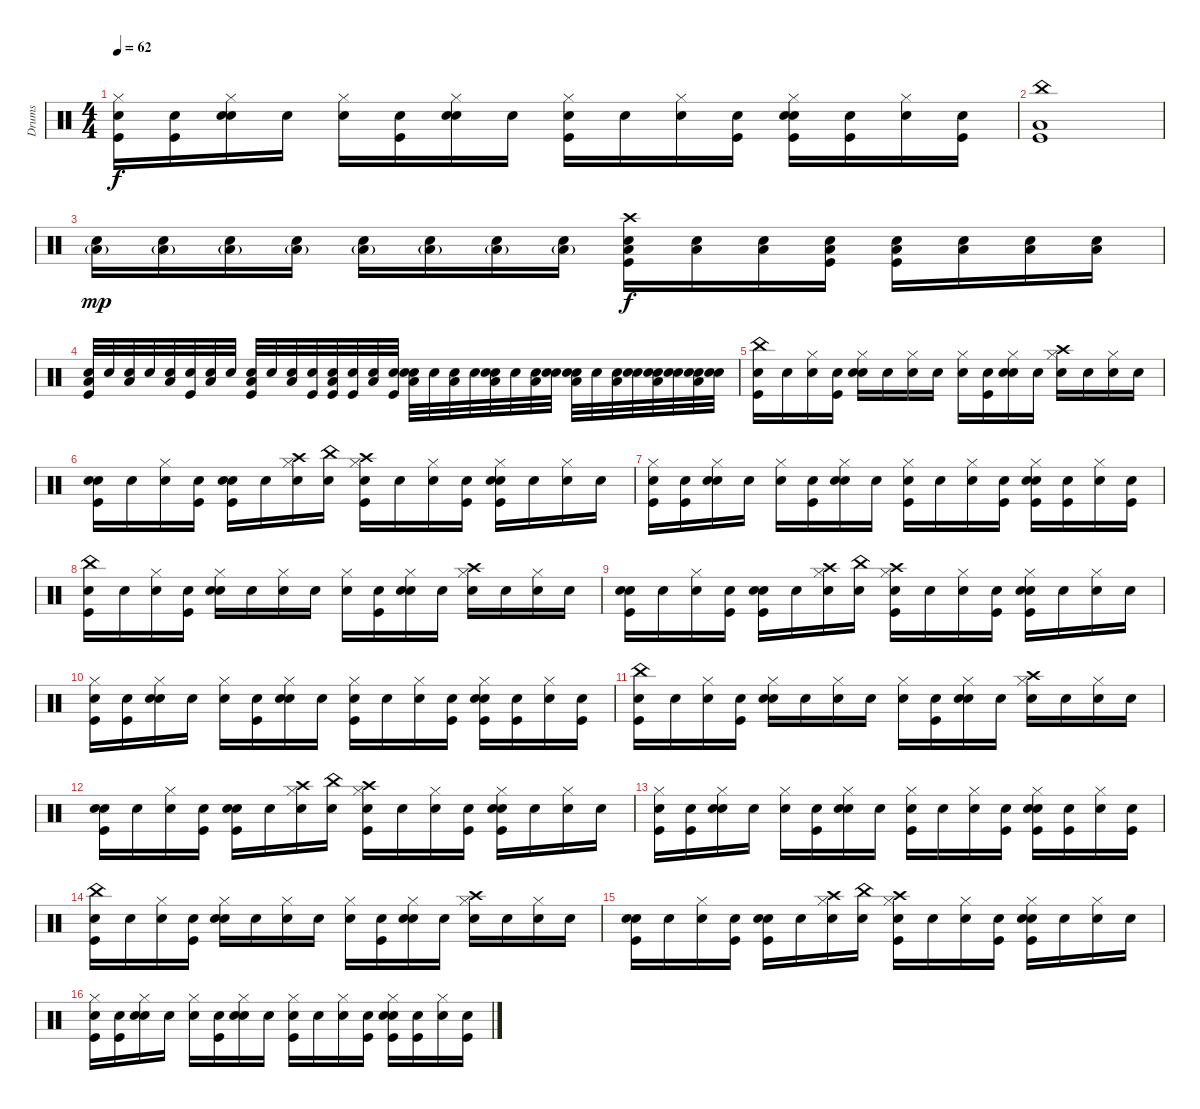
\track ("Drums" "Drums") {instrument percussion}
\staff {score}
\articulation defaults
\ts (4 4)
\tempo 62
\clef neutral
\ks c
("Snare (hit)" "Kick (hit)" "Hi-Hat (closed)").16{dy f} ("Snare (hit)" "Kick (hit)").16 ("Snare (hit)" "Snare (hit) 2" "Hi-Hat (closed)").16 "Snare (hit)".16 ("Snare (hit)" "Hi-Hat (closed)").16 ("Snare (hit)" "Kick (hit)").16 ("Snare (hit)" "Snare (hit) 2" "Hi-Hat (closed)").16 "Snare (hit)".16 ("Snare (hit)" "Kick (hit)" "Hi-Hat (closed)").16 "Snare (hit)".16 ("Snare (hit)" "Hi-Hat (closed)").16 ("Snare (hit)" "Kick (hit)").16 ("Snare (hit)" "Snare (hit) 2" "Kick (hit)" "Hi-Hat (closed)").16 ("Snare (hit)" "Kick (hit)").16 ("Snare (hit)" "Hi-Hat (closed)").16 ("Snare (hit)" "Kick (hit)").16 |
("China (hit)" "Kick (hit)" "Low Floor Tom (hit)").1 |
("Snare (hit)" "Low Floor Tom (hit)"{g}).16{dy mp} ("Snare (hit)" "Low Floor Tom (hit)"{g}).16 ("Snare (hit)" "Low Floor Tom (hit)"{g}).16 ("Snare (hit)" "Low Floor Tom (hit)"{g}).16 ("Snare (hit)" "Low Floor Tom (hit)"{g}).16 ("Snare (hit)" "Low Floor Tom (hit)"{g}).16 ("Snare (hit)" "Low Floor Tom (hit)"{g}).16 ("Snare (hit)" "Low Floor Tom (hit)"{g}).16 ("Snare (hit)" "Crash high (hit)" "Kick (hit)" "Low Floor Tom (hit)").16{dy f} ("Snare (hit)" "Low Floor Tom (hit)").16 ("Snare (hit)" "Low Floor Tom (hit)").16 ("Snare (hit)" "Kick (hit)" "Low Floor Tom (hit)").16 ("Snare (hit)" "Kick (hit)" "Low Floor Tom (hit)").16 ("Snare (hit)" "Low Floor Tom (hit)").16 ("Snare (hit)" "Low Floor Tom (hit)").16 ("Snare (hit)" "Low Floor Tom (hit)").16 |
("Snare (hit)" "Kick (hit)" "Low Floor Tom (hit)").32 "Snare (hit)".32 ("Snare (hit)" "Low Floor Tom (hit)").32 "Snare (hit)".32 ("Snare (hit)" "Low Floor Tom (hit)").32 ("Snare (hit)" "Kick (hit)").32 ("Snare (hit)" "Low Floor Tom (hit)").32 "Snare (hit)".32 ("Snare (hit)" "Kick (hit)" "Low Floor Tom (hit)").32 "Snare (hit)".32 ("Snare (hit)" "Low Floor Tom (hit)").32 ("Snare (hit)" "Kick (hit)").32 ("Snare (hit)" "Kick (hit)" "Low Floor Tom (hit)").32 ("Snare (hit)" "Kick (hit)").32 ("Snare (hit)" "Low Floor Tom (hit)").32 ("Snare (hit)" "Kick (hit)").32 ("Snare (hit)" "Snare (hit) 2" "Low Floor Tom (hit)").32 "Snare (hit)".32 ("Snare (hit)" "Low Floor Tom (hit)").32 "Snare (hit)".32 ("Snare (hit)" "Snare (hit) 2" "Low Floor Tom (hit)").32 "Snare (hit)".32 ("Snare (hit)" "Low Floor Tom (hit)").32 ("Snare (hit)" "Snare (hit) 2").32 ("Snare (hit)" "Snare (hit) 2" "Low Floor Tom (hit)").32 "Snare (hit)".32 ("Snare (hit)" "Low Floor Tom (hit)").32 ("Snare (hit)" "Snare (hit) 2").32 ("Snare (hit)" "Snare (hit) 2" "Low Floor Tom (hit)").32 ("Snare (hit)" "Snare (hit) 2").32 ("Snare (hit)" "Snare (hit) 2" "Low Floor Tom (hit)").32 ("Snare (hit)" "Snare (hit) 2").32 |
("Snare (hit)" "China (hit)" "Kick (hit)").16 "Snare (hit)".16 ("Snare (hit)" "Hi-Hat (closed)").16 ("Snare (hit)" "Kick (hit)").16 ("Snare (hit)" "Snare (hit) 2" "Hi-Hat (closed)").16 "Snare (hit)".16 ("Snare (hit)" "Hi-Hat (closed)").16 "Snare (hit)".16 ("Snare (hit)" "Hi-Hat (closed)").16 ("Snare (hit)" "Kick (hit)").16 ("Snare (hit)" "Snare (hit) 2" "Hi-Hat (closed)").16 "Snare (hit)".16 ("Snare (hit)" "Crash high (hit)" "Hi-Hat (closed)").16 "Snare (hit)".16 ("Snare (hit)" "Hi-Hat (closed)").16 "Snare (hit)".16 |
("Snare (hit)" "Snare (hit) 2" "Kick (hit)").16 "Snare (hit)".16 ("Snare (hit)" "Hi-Hat (closed)").16 ("Snare (hit)" "Kick (hit)").16 ("Snare (hit)" "Snare (hit) 2" "Kick (hit)").16 "Snare (hit)".16 ("Snare (hit)" "Crash high (hit)" "Hi-Hat (closed)").16 ("Snare (hit)" "China (hit)").16 ("Snare (hit)" "Crash high (hit)" "Kick (hit)" "Hi-Hat (closed)").16 "Snare (hit)".16 ("Snare (hit)" "Hi-Hat (closed)").16 ("Snare (hit)" "Kick (hit)").16 ("Snare (hit)" "Snare (hit) 2" "Kick (hit)" "Hi-Hat (closed)").16 "Snare (hit)".16 ("Snare (hit)" "Hi-Hat (closed)").16 "Snare (hit)".16 |
("Snare (hit)" "Kick (hit)" "Hi-Hat (closed)").16 ("Snare (hit)" "Kick (hit)").16 ("Snare (hit)" "Snare (hit) 2" "Hi-Hat (closed)").16 "Snare (hit)".16 ("Snare (hit)" "Hi-Hat (closed)").16 ("Snare (hit)" "Kick (hit)").16 ("Snare (hit)" "Snare (hit) 2" "Hi-Hat (closed)").16 "Snare (hit)".16 ("Snare (hit)" "Kick (hit)" "Hi-Hat (closed)").16 "Snare (hit)".16 ("Snare (hit)" "Hi-Hat (closed)").16 ("Snare (hit)" "Kick (hit)").16 ("Snare (hit)" "Snare (hit) 2" "Kick (hit)" "Hi-Hat (closed)").16 ("Snare (hit)" "Kick (hit)").16 ("Snare (hit)" "Hi-Hat (closed)").16 ("Snare (hit)" "Kick (hit)").16 |
("Snare (hit)" "China (hit)" "Kick (hit)").16 "Snare (hit)".16 ("Snare (hit)" "Hi-Hat (closed)").16 ("Snare (hit)" "Kick (hit)").16 ("Snare (hit)" "Snare (hit) 2" "Hi-Hat (closed)").16 "Snare (hit)".16 ("Snare (hit)" "Hi-Hat (closed)").16 "Snare (hit)".16 ("Snare (hit)" "Hi-Hat (closed)").16 ("Snare (hit)" "Kick (hit)").16 ("Snare (hit)" "Snare (hit) 2" "Hi-Hat (closed)").16 "Snare (hit)".16 ("Snare (hit)" "Crash high (hit)" "Hi-Hat (closed)").16 "Snare (hit)".16 ("Snare (hit)" "Hi-Hat (closed)").16 "Snare (hit)".16 |
("Snare (hit)" "Snare (hit) 2" "Kick (hit)").16 "Snare (hit)".16 ("Snare (hit)" "Hi-Hat (closed)").16 ("Snare (hit)" "Kick (hit)").16 ("Snare (hit)" "Snare (hit) 2" "Kick (hit)").16 "Snare (hit)".16 ("Snare (hit)" "Crash high (hit)" "Hi-Hat (closed)").16 ("Snare (hit)" "China (hit)").16 ("Snare (hit)" "Crash high (hit)" "Kick (hit)" "Hi-Hat (closed)").16 "Snare (hit)".16 ("Snare (hit)" "Hi-Hat (closed)").16 ("Snare (hit)" "Kick (hit)").16 ("Snare (hit)" "Snare (hit) 2" "Kick (hit)" "Hi-Hat (closed)").16 "Snare (hit)".16 ("Snare (hit)" "Hi-Hat (closed)").16 "Snare (hit)".16 |
("Snare (hit)" "Kick (hit)" "Hi-Hat (closed)").16 ("Snare (hit)" "Kick (hit)").16 ("Snare (hit)" "Snare (hit) 2" "Hi-Hat (closed)").16 "Snare (hit)".16 ("Snare (hit)" "Hi-Hat (closed)").16 ("Snare (hit)" "Kick (hit)").16 ("Snare (hit)" "Snare (hit) 2" "Hi-Hat (closed)").16 "Snare (hit)".16 ("Snare (hit)" "Kick (hit)" "Hi-Hat (closed)").16 "Snare (hit)".16 ("Snare (hit)" "Hi-Hat (closed)").16 ("Snare (hit)" "Kick (hit)").16 ("Snare (hit)" "Snare (hit) 2" "Kick (hit)" "Hi-Hat (closed)").16 ("Snare (hit)" "Kick (hit)").16 ("Snare (hit)" "Hi-Hat (closed)").16 ("Snare (hit)" "Kick (hit)").16 |
("Snare (hit)" "China (hit)" "Kick (hit)").16 "Snare (hit)".16 ("Snare (hit)" "Hi-Hat (closed)").16 ("Snare (hit)" "Kick (hit)").16 ("Snare (hit)" "Snare (hit) 2" "Hi-Hat (closed)").16 "Snare (hit)".16 ("Snare (hit)" "Hi-Hat (closed)").16 "Snare (hit)".16 ("Snare (hit)" "Hi-Hat (closed)").16 ("Snare (hit)" "Kick (hit)").16 ("Snare (hit)" "Snare (hit) 2" "Hi-Hat (closed)").16 "Snare (hit)".16 ("Snare (hit)" "Crash high (hit)" "Hi-Hat (closed)").16 "Snare (hit)".16 ("Snare (hit)" "Hi-Hat (closed)").16 "Snare (hit)".16 |
("Snare (hit)" "Snare (hit) 2" "Kick (hit)").16 "Snare (hit)".16 ("Snare (hit)" "Hi-Hat (closed)").16 ("Snare (hit)" "Kick (hit)").16 ("Snare (hit)" "Snare (hit) 2" "Kick (hit)").16 "Snare (hit)".16 ("Snare (hit)" "Crash high (hit)" "Hi-Hat (closed)").16 ("Snare (hit)" "China (hit)").16 ("Snare (hit)" "Crash high (hit)" "Kick (hit)" "Hi-Hat (closed)").16 "Snare (hit)".16 ("Snare (hit)" "Hi-Hat (closed)").16 ("Snare (hit)" "Kick (hit)").16 ("Snare (hit)" "Snare (hit) 2" "Kick (hit)" "Hi-Hat (closed)").16 "Snare (hit)".16 ("Snare (hit)" "Hi-Hat (closed)").16 "Snare (hit)".16 |
("Snare (hit)" "Kick (hit)" "Hi-Hat (closed)").16 ("Snare (hit)" "Kick (hit)").16 ("Snare (hit)" "Snare (hit) 2" "Hi-Hat (closed)").16 "Snare (hit)".16 ("Snare (hit)" "Hi-Hat (closed)").16 ("Snare (hit)" "Kick (hit)").16 ("Snare (hit)" "Snare (hit) 2" "Hi-Hat (closed)").16 "Snare (hit)".16 ("Snare (hit)" "Kick (hit)" "Hi-Hat (closed)").16 "Snare (hit)".16 ("Snare (hit)" "Hi-Hat (closed)").16 ("Snare (hit)" "Kick (hit)").16 ("Snare (hit)" "Snare (hit) 2" "Kick (hit)" "Hi-Hat (closed)").16 ("Snare (hit)" "Kick (hit)").16 ("Snare (hit)" "Hi-Hat (closed)").16 ("Snare (hit)" "Kick (hit)").16 |
("Snare (hit)" "China (hit)" "Kick (hit)").16 "Snare (hit)".16 ("Snare (hit)" "Hi-Hat (closed)").16 ("Snare (hit)" "Kick (hit)").16 ("Snare (hit)" "Snare (hit) 2" "Hi-Hat (closed)").16 "Snare (hit)".16 ("Snare (hit)" "Hi-Hat (closed)").16 "Snare (hit)".16 ("Snare (hit)" "Hi-Hat (closed)").16 ("Snare (hit)" "Kick (hit)").16 ("Snare (hit)" "Snare (hit) 2" "Hi-Hat (closed)").16 "Snare (hit)".16 ("Snare (hit)" "Crash high (hit)" "Hi-Hat (closed)").16 "Snare (hit)".16 ("Snare (hit)" "Hi-Hat (closed)").16 "Snare (hit)".16 |
("Snare (hit)" "Snare (hit) 2" "Kick (hit)").16 "Snare (hit)".16 ("Snare (hit)" "Hi-Hat (closed)").16 ("Snare (hit)" "Kick (hit)").16 ("Snare (hit)" "Snare (hit) 2" "Kick (hit)").16 "Snare (hit)".16 ("Snare (hit)" "Crash high (hit)" "Hi-Hat (closed)").16 ("Snare (hit)" "China (hit)").16 ("Snare (hit)" "Crash high (hit)" "Kick (hit)" "Hi-Hat (closed)").16 "Snare (hit)".16 ("Snare (hit)" "Hi-Hat (closed)").16 ("Snare (hit)" "Kick (hit)").16 ("Snare (hit)" "Snare (hit) 2" "Kick (hit)" "Hi-Hat (closed)").16 "Snare (hit)".16 ("Snare (hit)" "Hi-Hat (closed)").16 "Snare (hit)".16 |
("Snare (hit)" "Kick (hit)" "Hi-Hat (closed)").16 ("Snare (hit)" "Kick (hit)").16 ("Snare (hit)" "Snare (hit) 2" "Hi-Hat (closed)").16 "Snare (hit)".16 ("Snare (hit)" "Hi-Hat (closed)").16 ("Snare (hit)" "Kick (hit)").16 ("Snare (hit)" "Snare (hit) 2" "Hi-Hat (closed)").16 "Snare (hit)".16 ("Snare (hit)" "Kick (hit)" "Hi-Hat (closed)").16 "Snare (hit)".16 ("Snare (hit)" "Hi-Hat (closed)").16 ("Snare (hit)" "Kick (hit)").16 ("Snare (hit)" "Snare (hit) 2" "Kick (hit)" "Hi-Hat (closed)").16 ("Snare (hit)" "Kick (hit)").16 ("Snare (hit)" "Hi-Hat (closed)").16 ("Snare (hit)" "Kick (hit)").16
